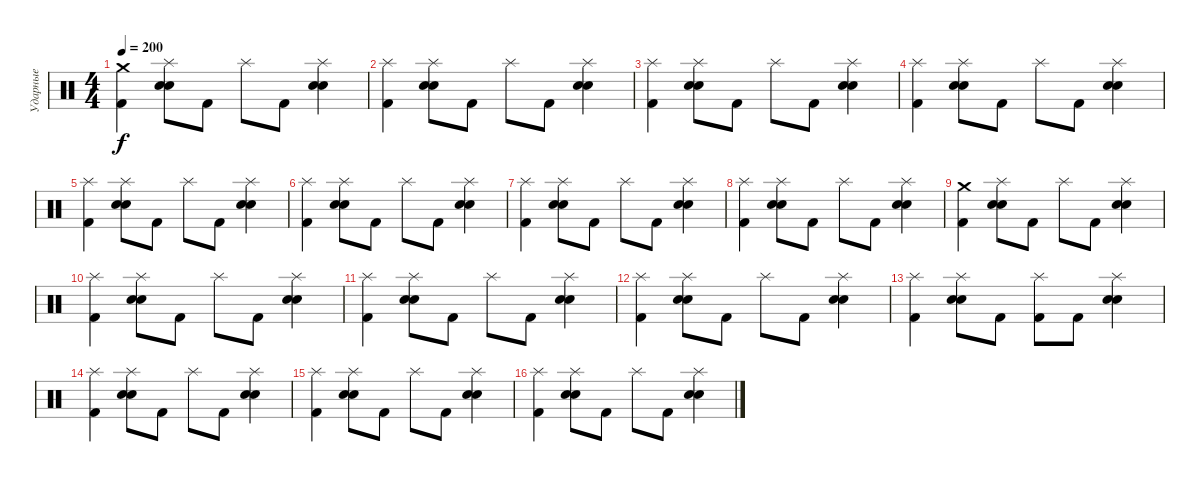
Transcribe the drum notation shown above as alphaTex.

\track ("Ударные" "Ударные") {instrument percussion}
\staff {score}
\articulation defaults
\ts (4 4)
\tempo 200
\clef neutral
\ks c
("Crash medium (hit)" "Kick (hit) 2").4{dy f} ("Splash (hit)" "Electric Snare (hit)" "Snare (hit) 2").8 "Kick (hit) 2".8 "Splash (hit)".8 "Kick (hit) 2".8 ("Splash (hit)" "Electric Snare (hit)" "Snare (hit) 2").4 |
("Splash (hit)" "Kick (hit) 2").4 ("Splash (hit)" "Electric Snare (hit)" "Snare (hit) 2").8 "Kick (hit) 2".8 "Splash (hit)".8 "Kick (hit) 2".8 ("Splash (hit)" "Electric Snare (hit)" "Snare (hit) 2").4 |
("Splash (hit)" "Kick (hit) 2").4 ("Splash (hit)" "Electric Snare (hit)" "Snare (hit) 2").8 "Kick (hit) 2".8 "Splash (hit)".8 "Kick (hit) 2".8 ("Splash (hit)" "Electric Snare (hit)" "Snare (hit) 2").4 |
("Splash (hit)" "Kick (hit) 2").4 ("Splash (hit)" "Electric Snare (hit)" "Snare (hit) 2").8 "Kick (hit) 2".8 "Splash (hit)".8 "Kick (hit) 2".8 ("Splash (hit)" "Electric Snare (hit)" "Snare (hit) 2").4 |
("Splash (hit)" "Kick (hit) 2").4 ("Splash (hit)" "Electric Snare (hit)" "Snare (hit) 2").8 "Kick (hit) 2".8 "Splash (hit)".8 "Kick (hit) 2".8 ("Splash (hit)" "Electric Snare (hit)" "Snare (hit) 2").4 |
("Splash (hit)" "Kick (hit) 2").4 ("Splash (hit)" "Electric Snare (hit)" "Snare (hit) 2").8 "Kick (hit) 2".8 "Splash (hit)".8 "Kick (hit) 2".8 ("Splash (hit)" "Electric Snare (hit)" "Snare (hit) 2").4 |
("Splash (hit)" "Kick (hit) 2").4 ("Splash (hit)" "Electric Snare (hit)" "Snare (hit) 2").8 "Kick (hit) 2".8 "Splash (hit)".8 "Kick (hit) 2".8 ("Splash (hit)" "Electric Snare (hit)" "Snare (hit) 2").4 |
("Splash (hit)" "Kick (hit) 2").4 ("Splash (hit)" "Electric Snare (hit)" "Snare (hit) 2").8 "Kick (hit) 2".8 "Splash (hit)".8 "Kick (hit) 2".8 ("Splash (hit)" "Electric Snare (hit)" "Snare (hit) 2").4 |
("Crash medium (hit)" "Kick (hit) 2").4 ("Splash (hit)" "Electric Snare (hit)" "Snare (hit) 2").8 "Kick (hit) 2".8 "Splash (hit)".8 "Kick (hit) 2".8 ("Splash (hit)" "Electric Snare (hit)" "Snare (hit) 2").4 |
("Splash (hit)" "Kick (hit) 2").4 ("Splash (hit)" "Electric Snare (hit)" "Snare (hit) 2").8 "Kick (hit) 2".8 "Splash (hit)".8 "Kick (hit) 2".8 ("Splash (hit)" "Electric Snare (hit)" "Snare (hit) 2").4 |
("Splash (hit)" "Kick (hit) 2").4 ("Splash (hit)" "Electric Snare (hit)" "Snare (hit) 2").8 "Kick (hit) 2".8 "Splash (hit)".8 "Kick (hit) 2".8 ("Splash (hit)" "Electric Snare (hit)" "Snare (hit) 2").4 |
("Splash (hit)" "Kick (hit) 2").4 ("Splash (hit)" "Electric Snare (hit)" "Snare (hit) 2").8 "Kick (hit) 2".8 "Splash (hit)".8 "Kick (hit) 2".8 ("Splash (hit)" "Electric Snare (hit)" "Snare (hit) 2").4 |
("Splash (hit)" "Kick (hit) 2").4 ("Splash (hit)" "Electric Snare (hit)" "Snare (hit) 2").8 "Kick (hit) 2".8 ("Splash (hit)" "Kick (hit) 2").8 "Kick (hit) 2".8 ("Splash (hit)" "Electric Snare (hit)" "Snare (hit) 2").4 |
("Splash (hit)" "Kick (hit) 2").4 ("Splash (hit)" "Electric Snare (hit)" "Snare (hit) 2").8 "Kick (hit) 2".8 "Splash (hit)".8 "Kick (hit) 2".8 ("Splash (hit)" "Electric Snare (hit)" "Snare (hit) 2").4 |
("Splash (hit)" "Kick (hit) 2").4 ("Splash (hit)" "Electric Snare (hit)" "Snare (hit) 2").8 "Kick (hit) 2".8 "Splash (hit)".8 "Kick (hit) 2".8 ("Splash (hit)" "Electric Snare (hit)" "Snare (hit) 2").4 |
("Splash (hit)" "Kick (hit) 2").4 ("Splash (hit)" "Electric Snare (hit)" "Snare (hit) 2").8 "Kick (hit) 2".8 "Splash (hit)".8 "Kick (hit) 2".8 ("Splash (hit)" "Electric Snare (hit)" "Snare (hit) 2").4
